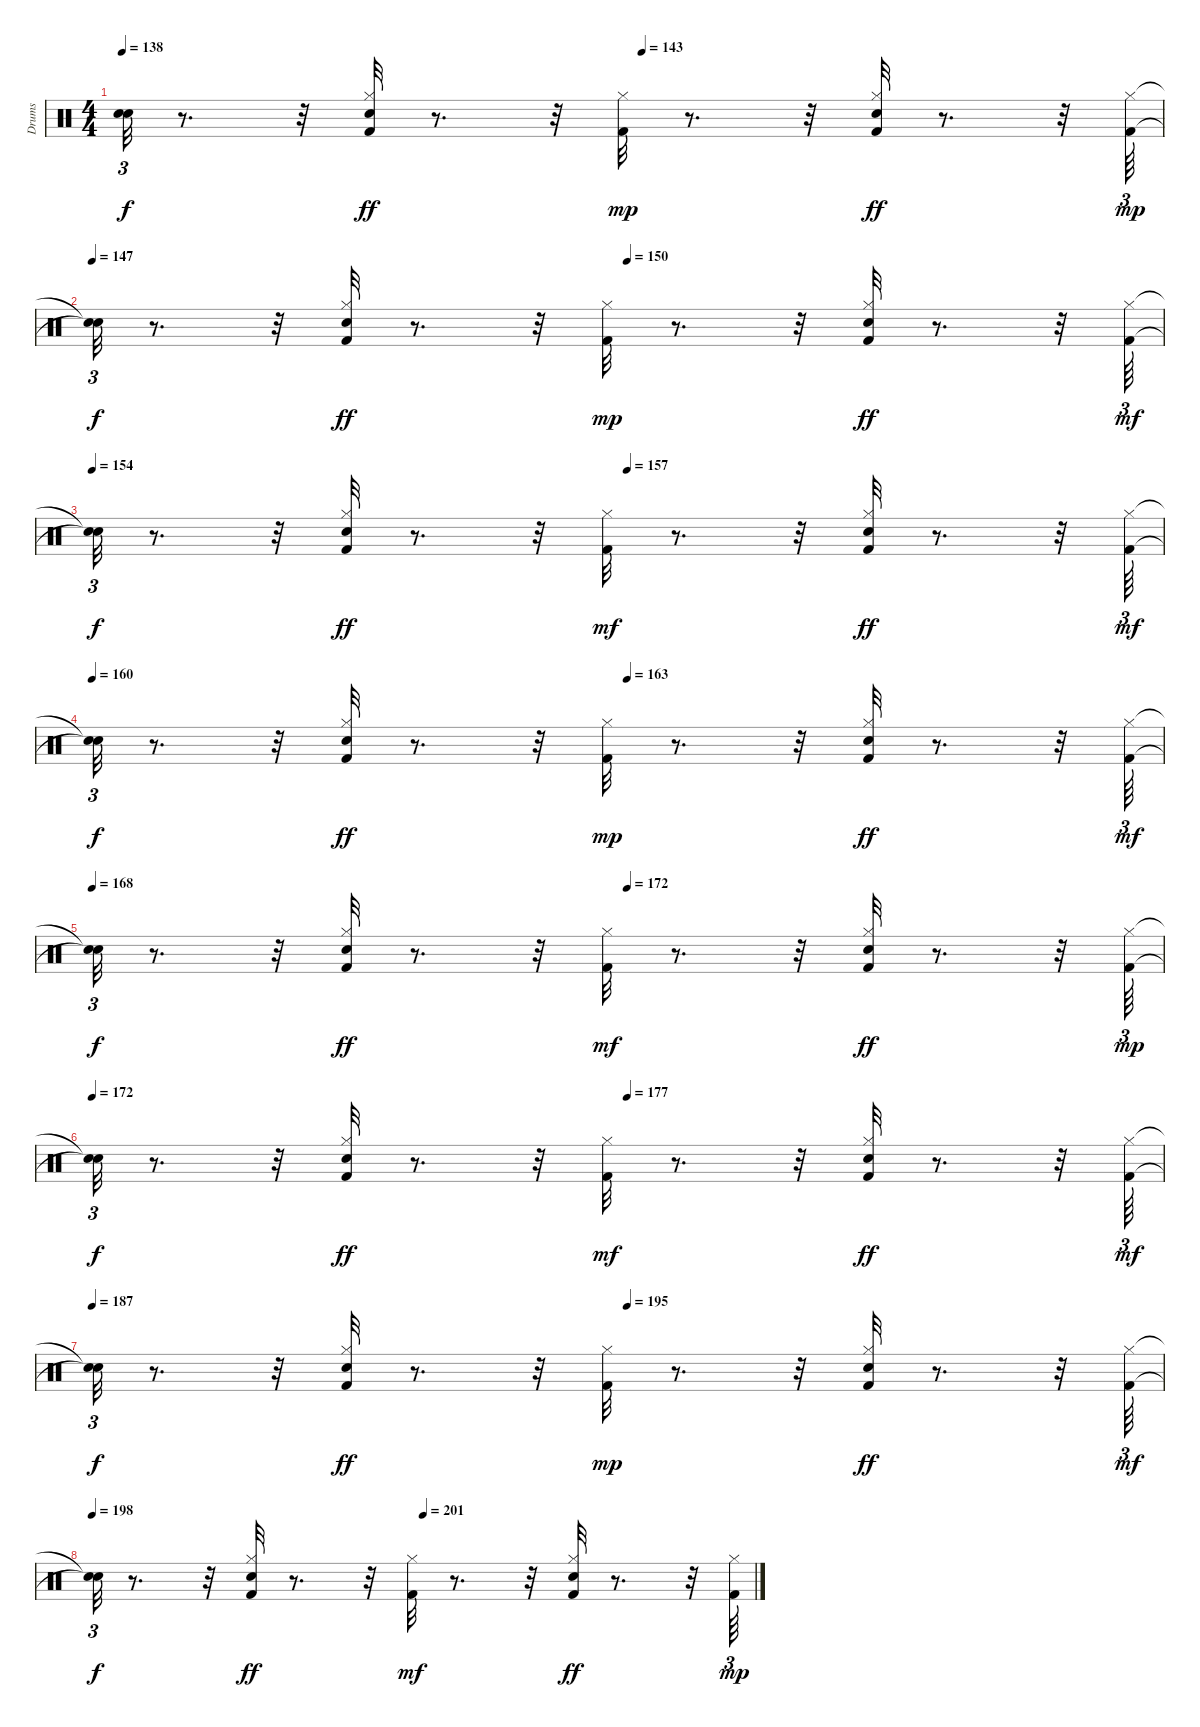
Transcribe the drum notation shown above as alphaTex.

\track ("Drums   " "Drums   ") {instrument percussion}
\staff {score}
\articulation defaults
\ts (4 4)
\tempo 138
\tempo (143 0.5)
\clef neutral
\ks c
("Snare (hit)"{t} "Snare (hit)"{t}).32{tu (3 2) dy f} r.8{d} r.32 ("Hi-Hat (closed)" "Kick (hit) 2" "Snare (hit) 2").32{dy ff} r.8{d} r.32 ("Kick (hit) 2" "Hi-Hat (closed)").32{dy mp} r.8{d} r.32 ("Hi-Hat (closed)" "Snare (hit) 2" "Kick (hit) 2").32{dy ff} r.8{d} r.32 ("Kick (hit) 2" "Hi-Hat (closed)").64{tu (3 2) dy mp} |
\tempo 147
\tempo (150 0.5)
("Snare (hit)"{t} "Snare (hit)"{t}).32{tu (3 2) dy f} r.8{d} r.32 ("Hi-Hat (closed)" "Kick (hit) 2" "Snare (hit) 2").32{dy ff} r.8{d} r.32 ("Kick (hit) 2" "Hi-Hat (closed)").32{dy mp} r.8{d} r.32 ("Hi-Hat (closed)" "Snare (hit) 2" "Kick (hit) 2").32{dy ff} r.8{d} r.32 ("Kick (hit) 2" "Hi-Hat (closed)").64{tu (3 2) dy mf} |
\tempo 154
\tempo (157 0.5)
("Snare (hit)"{t} "Snare (hit)"{t}).32{tu (3 2) dy f} r.8{d} r.32 ("Hi-Hat (closed)" "Kick (hit) 2" "Snare (hit) 2").32{dy ff} r.8{d} r.32 ("Kick (hit) 2" "Hi-Hat (closed)").32{dy mf} r.8{d} r.32 ("Hi-Hat (closed)" "Snare (hit) 2" "Kick (hit) 2").32{dy ff} r.8{d} r.32 ("Kick (hit) 2" "Hi-Hat (closed)").64{tu (3 2) dy mf} |
\tempo 160
\tempo (163 0.5)
("Snare (hit)"{t} "Snare (hit)"{t}).32{tu (3 2) dy f} r.8{d} r.32 ("Hi-Hat (closed)" "Kick (hit) 2" "Snare (hit) 2").32{dy ff} r.8{d} r.32 ("Kick (hit) 2" "Hi-Hat (closed)").32{dy mp} r.8{d} r.32 ("Hi-Hat (closed)" "Snare (hit) 2" "Kick (hit) 2").32{dy ff} r.8{d} r.32 ("Kick (hit) 2" "Hi-Hat (closed)").64{tu (3 2) dy mf} |
\tempo 168
\tempo (172 0.5)
("Snare (hit)"{t} "Snare (hit)"{t}).32{tu (3 2) dy f} r.8{d} r.32 ("Hi-Hat (closed)" "Kick (hit) 2" "Snare (hit) 2").32{dy ff} r.8{d} r.32 ("Kick (hit) 2" "Hi-Hat (closed)").32{dy mf} r.8{d} r.32 ("Hi-Hat (closed)" "Snare (hit) 2" "Kick (hit) 2").32{dy ff} r.8{d} r.32 ("Kick (hit) 2" "Hi-Hat (closed)").64{tu (3 2) dy mp} |
\tempo 172
\tempo (177 0.5)
("Snare (hit)"{t} "Snare (hit)"{t}).32{tu (3 2) dy f} r.8{d} r.32 ("Hi-Hat (closed)" "Kick (hit) 2" "Snare (hit) 2").32{dy ff} r.8{d} r.32 ("Kick (hit) 2" "Hi-Hat (closed)").32{dy mf} r.8{d} r.32 ("Hi-Hat (closed)" "Snare (hit) 2" "Kick (hit) 2").32{dy ff} r.8{d} r.32 ("Kick (hit) 2" "Hi-Hat (closed)").64{tu (3 2) dy mf} |
\tempo 187
\tempo (195 0.5)
("Snare (hit)"{t} "Snare (hit)"{t}).32{tu (3 2) dy f} r.8{d} r.32 ("Hi-Hat (closed)" "Kick (hit) 2" "Snare (hit) 2").32{dy ff} r.8{d} r.32 ("Kick (hit) 2" "Hi-Hat (closed)").32{dy mp} r.8{d} r.32 ("Hi-Hat (closed)" "Snare (hit) 2" "Kick (hit) 2").32{dy ff} r.8{d} r.32 ("Kick (hit) 2" "Hi-Hat (closed)").64{tu (3 2) dy mf} |
\tempo 198
\tempo (201 0.5)
("Snare (hit)"{t} "Snare (hit)"{t}).32{tu (3 2) dy f} r.8{d} r.32 ("Hi-Hat (closed)" "Kick (hit) 2" "Snare (hit) 2").32{dy ff} r.8{d} r.32 ("Kick (hit) 2" "Hi-Hat (closed)").32{dy mf} r.8{d} r.32 ("Hi-Hat (closed)" "Snare (hit) 2" "Kick (hit) 2").32{dy ff} r.8{d} r.32 ("Kick (hit) 2" "Hi-Hat (closed)").64{tu (3 2) dy mp}
